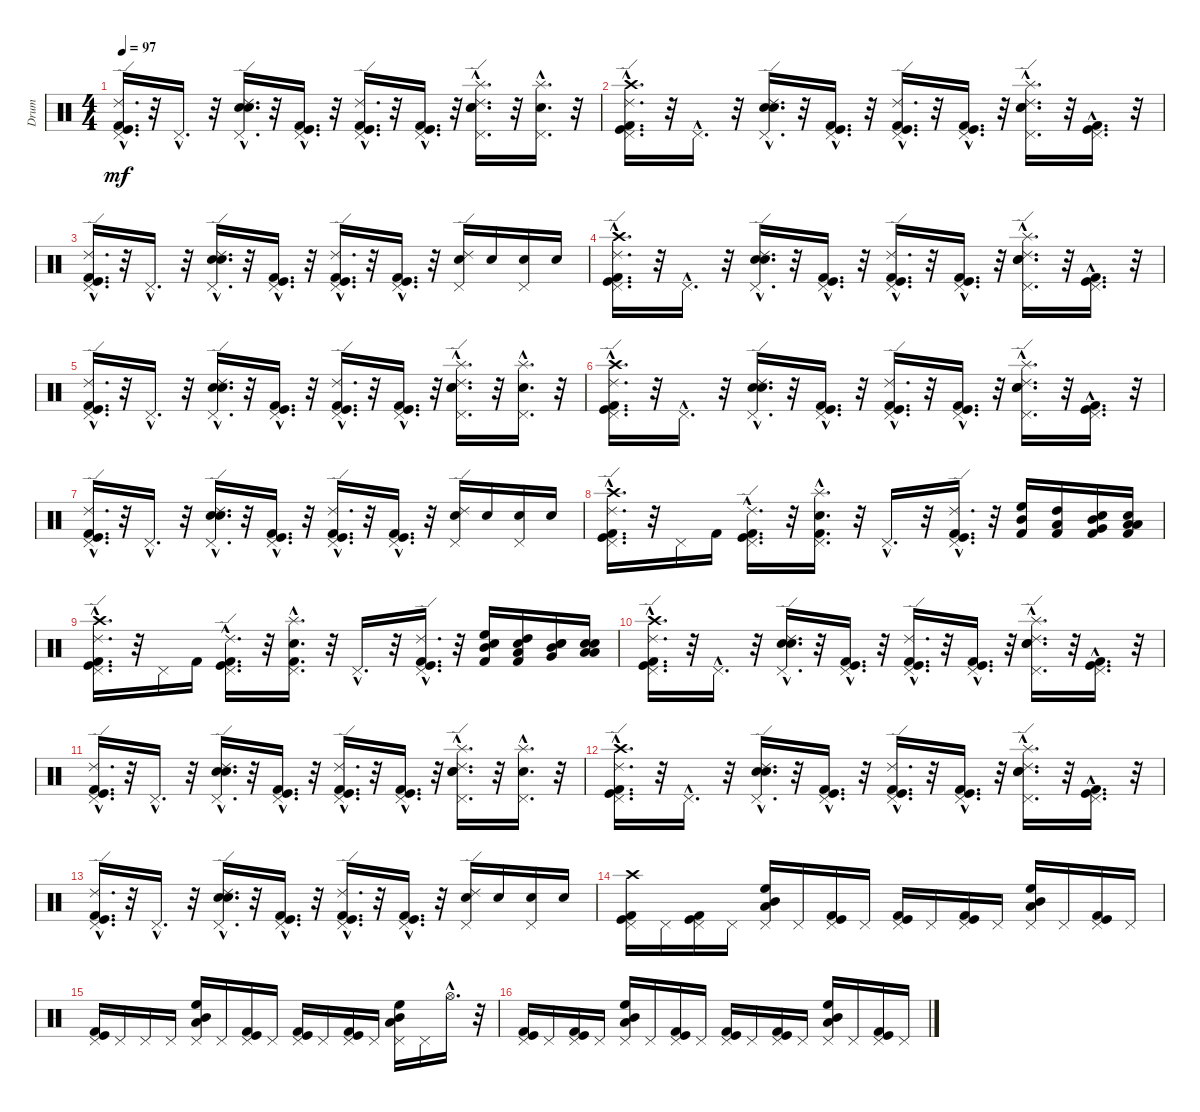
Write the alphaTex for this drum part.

\track ("Drum" "Drum") {instrument percussion}
\staff {score}
\articulation defaults
\ts (4 4)
\tempo 97
\clef neutral
\ks c
("Pedal Hi-Hat (hit)"{hac} "Ride (edge) 2"{hac} "Kick (hit) 2"{hac} "Kick (hit)"{hac}).16{d dy mf} r.32 "Pedal Hi-Hat (hit)"{hac}.16{d} r.32 ("Pedal Hi-Hat (hit)"{hac} "Ride (edge) 2"{hac} "Snare (hit) 2"{hac} "Electric Snare (hit)"{hac}).16{d} r.32 ("Pedal Hi-Hat (hit)"{hac} "Kick (hit)"{hac} "Kick (hit) 2"{hac}).16{d} r.32 ("Pedal Hi-Hat (hit)"{hac} "Ride (edge) 2"{hac} "Kick (hit)"{hac} "Kick (hit) 2"{hac}).16{d} r.32 ("Pedal Hi-Hat (hit)"{hac} "Kick (hit)"{hac} "Kick (hit) 2"{hac}).16{d} r.32 ("Pedal Hi-Hat (hit)"{hac} "Ride (edge) 2"{hac} "Snare (hit) 2"{hac} "Electric Snare (hit)"{hac} "Splash (hit)"{hac}).16{d} r.32 ("Splash (hit)"{hac} "Snare (hit) 2"{hac} "Pedal Hi-Hat (hit)"{hac}).16{d} r.32 |
("Pedal Hi-Hat (hit)"{hac} "Ride (edge) 2"{hac} "Kick (hit) 2"{hac} "Kick (hit)"{hac} "Crash high (hit)"{hac}).16{d} r.32 "Pedal Hi-Hat (hit)"{hac}.16{d} r.32 ("Pedal Hi-Hat (hit)"{hac} "Ride (edge) 2"{hac} "Snare (hit) 2"{hac} "Electric Snare (hit)"{hac}).16{d} r.32 ("Pedal Hi-Hat (hit)"{hac} "Kick (hit)"{hac} "Kick (hit) 2"{hac}).16{d} r.32 ("Pedal Hi-Hat (hit)"{hac} "Ride (edge) 2"{hac} "Kick (hit)"{hac} "Kick (hit) 2"{hac}).16{d} r.32 ("Pedal Hi-Hat (hit)"{hac} "Kick (hit)"{hac} "Kick (hit) 2"{hac}).16{d} r.32 ("Pedal Hi-Hat (hit)"{hac} "Ride (edge) 2"{hac} "Snare (hit) 2"{hac} "Electric Snare (hit)"{hac} "Splash (hit)"{hac}).16{d} r.32 ("Kick (hit) 2"{hac} "Pedal Hi-Hat (hit)"{hac} "Kick (hit)"{hac}).16{d} r.32 |
("Kick (hit)"{hac} "Kick (hit) 2"{hac} "Ride (edge) 2"{hac} "Pedal Hi-Hat (hit)"{hac}).16{d} r.32 "Pedal Hi-Hat (hit)"{hac}.16{d} r.32 ("Electric Snare (hit)"{hac} "Snare (hit) 2"{hac} "Ride (edge) 2"{hac} "Pedal Hi-Hat (hit)"{hac}).16{d} r.32 ("Kick (hit) 2"{hac} "Kick (hit)"{hac} "Pedal Hi-Hat (hit)"{hac}).16{d} r.32 ("Kick (hit) 2"{hac} "Kick (hit)"{hac} "Ride (edge) 2"{hac} "Pedal Hi-Hat (hit)"{hac}).16{d} r.32 ("Kick (hit) 2"{hac} "Kick (hit)"{hac} "Pedal Hi-Hat (hit)"{hac}).16{d} r.32 ("Ride (edge) 2" "Pedal Hi-Hat (hit)" "Snare (hit) 2").16 "Snare (hit) 2".16 ("Pedal Hi-Hat (hit)" "Snare (hit) 2").16 "Snare (hit) 2".16 |
("Pedal Hi-Hat (hit)"{hac} "Ride (edge) 2"{hac} "Kick (hit) 2"{hac} "Kick (hit)"{hac} "Crash high (hit)"{hac}).16{d} r.32 "Pedal Hi-Hat (hit)"{hac}.16{d} r.32 ("Pedal Hi-Hat (hit)"{hac} "Ride (edge) 2"{hac} "Snare (hit) 2"{hac} "Electric Snare (hit)"{hac}).16{d} r.32 ("Pedal Hi-Hat (hit)"{hac} "Kick (hit)"{hac} "Kick (hit) 2"{hac}).16{d} r.32 ("Pedal Hi-Hat (hit)"{hac} "Ride (edge) 2"{hac} "Kick (hit)"{hac} "Kick (hit) 2"{hac}).16{d} r.32 ("Pedal Hi-Hat (hit)"{hac} "Kick (hit)"{hac} "Kick (hit) 2"{hac}).16{d} r.32 ("Pedal Hi-Hat (hit)"{hac} "Ride (edge) 2"{hac} "Snare (hit) 2"{hac} "Electric Snare (hit)"{hac} "Splash (hit)"{hac}).16{d} r.32 ("Kick (hit) 2"{hac} "Pedal Hi-Hat (hit)"{hac} "Kick (hit)"{hac}).16{d} r.32 |
("Kick (hit)"{hac} "Kick (hit) 2"{hac} "Ride (edge) 2"{hac} "Pedal Hi-Hat (hit)"{hac}).16{d} r.32 "Pedal Hi-Hat (hit)"{hac}.16{d} r.32 ("Electric Snare (hit)"{hac} "Snare (hit) 2"{hac} "Ride (edge) 2"{hac} "Pedal Hi-Hat (hit)"{hac}).16{d} r.32 ("Kick (hit) 2"{hac} "Kick (hit)"{hac} "Pedal Hi-Hat (hit)"{hac}).16{d} r.32 ("Kick (hit) 2"{hac} "Kick (hit)"{hac} "Ride (edge) 2"{hac} "Pedal Hi-Hat (hit)"{hac}).16{d} r.32 ("Kick (hit) 2"{hac} "Kick (hit)"{hac} "Pedal Hi-Hat (hit)"{hac}).16{d} r.32 ("Splash (hit)"{hac} "Electric Snare (hit)"{hac} "Snare (hit) 2"{hac} "Ride (edge) 2"{hac} "Pedal Hi-Hat (hit)"{hac}).16{d} r.32 ("Pedal Hi-Hat (hit)"{hac} "Snare (hit) 2"{hac} "Splash (hit)"{hac}).16{d} r.32 |
("Crash high (hit)"{hac} "Kick (hit)"{hac} "Kick (hit) 2"{hac} "Ride (edge) 2"{hac} "Pedal Hi-Hat (hit)"{hac}).16{d} r.32 "Pedal Hi-Hat (hit)"{hac}.16{d} r.32 ("Electric Snare (hit)"{hac} "Snare (hit) 2"{hac} "Ride (edge) 2"{hac} "Pedal Hi-Hat (hit)"{hac}).16{d} r.32 ("Kick (hit) 2"{hac} "Kick (hit)"{hac} "Pedal Hi-Hat (hit)"{hac}).16{d} r.32 ("Kick (hit) 2"{hac} "Kick (hit)"{hac} "Ride (edge) 2"{hac} "Pedal Hi-Hat (hit)"{hac}).16{d} r.32 ("Kick (hit) 2"{hac} "Kick (hit)"{hac} "Pedal Hi-Hat (hit)"{hac}).16{d} r.32 ("Splash (hit)"{hac} "Electric Snare (hit)"{hac} "Snare (hit) 2"{hac} "Ride (edge) 2"{hac} "Pedal Hi-Hat (hit)"{hac}).16{d} r.32 ("Kick (hit)"{hac} "Pedal Hi-Hat (hit)"{hac} "Kick (hit) 2"{hac}).16{d} r.32 |
("Pedal Hi-Hat (hit)"{hac} "Ride (edge) 2"{hac} "Kick (hit) 2"{hac} "Kick (hit)"{hac}).16{d} r.32 "Pedal Hi-Hat (hit)"{hac}.16{d} r.32 ("Pedal Hi-Hat (hit)"{hac} "Ride (edge) 2"{hac} "Snare (hit) 2"{hac} "Electric Snare (hit)"{hac}).16{d} r.32 ("Pedal Hi-Hat (hit)"{hac} "Kick (hit)"{hac} "Kick (hit) 2"{hac}).16{d} r.32 ("Pedal Hi-Hat (hit)"{hac} "Ride (edge) 2"{hac} "Kick (hit)"{hac} "Kick (hit) 2"{hac}).16{d} r.32 ("Pedal Hi-Hat (hit)"{hac} "Kick (hit)"{hac} "Kick (hit) 2"{hac}).16{d} r.32 ("Snare (hit) 2" "Pedal Hi-Hat (hit)" "Ride (edge) 2").16 "Snare (hit) 2".16 ("Snare (hit) 2" "Pedal Hi-Hat (hit)").16 "Snare (hit) 2".16 |
("Kick (hit)"{hac} "Crash high (hit)"{hac} "Kick (hit) 2"{hac} "Ride (edge) 2"{hac} "Pedal Hi-Hat (hit)"{hac}).16{d} r.32 "Pedal Hi-Hat (hit)".16 "Kick (hit) 2".16 ("Ride (edge) 2"{hac} "Pedal Hi-Hat (hit)"{hac} "Kick (hit) 2"{hac} "Kick (hit)"{hac}).16{d} r.32 ("Pedal Hi-Hat (hit)"{hac} "Splash (hit)"{hac} "Snare (hit) 2"{hac} "Kick (hit) 2"{hac}).16{d} r.32 "Pedal Hi-Hat (hit)"{hac}.16{d} r.32 ("Kick (hit)"{hac} "Pedal Hi-Hat (hit)"{hac} "Kick (hit) 2"{hac} "Ride (edge) 2"{hac}).16{d} r.32 ("High Floor Tom (hit)" "Mid Tom (hit)" "Kick (hit) 2").16 ("High Tom (hit)" "Low Tom (hit)" "Kick (hit) 2").16 ("Mid Tom (hit)" "Very Low Tom (hit)" "Kick (hit) 2" "Electric Snare (hit)").16 ("Low Tom (hit)" "Low Floor Tom (hit)" "Kick (hit) 2" "Electric Snare (hit)").16 |
("Pedal Hi-Hat (hit)"{hac} "Ride (edge) 2"{hac} "Kick (hit) 2"{hac} "Crash high (hit)"{hac} "Kick (hit)"{hac}).16{d} r.32 "Pedal Hi-Hat (hit)".16 "Kick (hit) 2".16 ("Kick (hit)"{hac} "Kick (hit) 2"{hac} "Pedal Hi-Hat (hit)"{hac} "Ride (edge) 2"{hac}).16{d} r.32 ("Kick (hit) 2"{hac} "Snare (hit) 2"{hac} "Splash (hit)"{hac} "Pedal Hi-Hat (hit)"{hac}).16{d} r.32 "Pedal Hi-Hat (hit)"{hac}.16{d} r.32 ("Kick (hit) 2"{hac} "Pedal Hi-Hat (hit)"{hac} "Kick (hit)"{hac} "Ride (edge) 2"{hac}).16{d} r.32 ("Kick (hit) 2" "Mid Tom (hit)" "High Floor Tom (hit)" "Electric Snare (hit)").16 ("Kick (hit) 2" "Low Tom (hit)" "High Tom (hit)" "Electric Snare (hit)").16 ("Electric Snare (hit)" "Snare (hit) 2" "Very Low Tom (hit)" "Mid Tom (hit)").16 ("Electric Snare (hit)" "Snare (hit) 2" "Low Floor Tom (hit)" "Low Tom (hit)").16 |
("Pedal Hi-Hat (hit)"{hac} "Ride (edge) 2"{hac} "Kick (hit) 2"{hac} "Kick (hit)"{hac} "Crash high (hit)"{hac}).16{d} r.32 "Pedal Hi-Hat (hit)"{hac}.16{d} r.32 ("Pedal Hi-Hat (hit)"{hac} "Ride (edge) 2"{hac} "Snare (hit) 2"{hac} "Electric Snare (hit)"{hac}).16{d} r.32 ("Pedal Hi-Hat (hit)"{hac} "Kick (hit)"{hac} "Kick (hit) 2"{hac}).16{d} r.32 ("Pedal Hi-Hat (hit)"{hac} "Ride (edge) 2"{hac} "Kick (hit)"{hac} "Kick (hit) 2"{hac}).16{d} r.32 ("Pedal Hi-Hat (hit)"{hac} "Kick (hit)"{hac} "Kick (hit) 2"{hac}).16{d} r.32 ("Pedal Hi-Hat (hit)"{hac} "Ride (edge) 2"{hac} "Snare (hit) 2"{hac} "Electric Snare (hit)"{hac} "Splash (hit)"{hac}).16{d} r.32 ("Kick (hit) 2"{hac} "Pedal Hi-Hat (hit)"{hac} "Kick (hit)"{hac}).16{d} r.32 |
("Kick (hit)"{hac} "Kick (hit) 2"{hac} "Ride (edge) 2"{hac} "Pedal Hi-Hat (hit)"{hac}).16{d} r.32 "Pedal Hi-Hat (hit)"{hac}.16{d} r.32 ("Electric Snare (hit)"{hac} "Snare (hit) 2"{hac} "Ride (edge) 2"{hac} "Pedal Hi-Hat (hit)"{hac}).16{d} r.32 ("Kick (hit) 2"{hac} "Kick (hit)"{hac} "Pedal Hi-Hat (hit)"{hac}).16{d} r.32 ("Kick (hit) 2"{hac} "Kick (hit)"{hac} "Ride (edge) 2"{hac} "Pedal Hi-Hat (hit)"{hac}).16{d} r.32 ("Kick (hit) 2"{hac} "Kick (hit)"{hac} "Pedal Hi-Hat (hit)"{hac}).16{d} r.32 ("Splash (hit)"{hac} "Electric Snare (hit)"{hac} "Snare (hit) 2"{hac} "Ride (edge) 2"{hac} "Pedal Hi-Hat (hit)"{hac}).16{d} r.32 ("Pedal Hi-Hat (hit)"{hac} "Snare (hit) 2"{hac} "Splash (hit)"{hac}).16{d} r.32 |
("Crash high (hit)"{hac} "Kick (hit)"{hac} "Kick (hit) 2"{hac} "Ride (edge) 2"{hac} "Pedal Hi-Hat (hit)"{hac}).16{d} r.32 "Pedal Hi-Hat (hit)"{hac}.16{d} r.32 ("Electric Snare (hit)"{hac} "Snare (hit) 2"{hac} "Ride (edge) 2"{hac} "Pedal Hi-Hat (hit)"{hac}).16{d} r.32 ("Kick (hit) 2"{hac} "Kick (hit)"{hac} "Pedal Hi-Hat (hit)"{hac}).16{d} r.32 ("Kick (hit) 2"{hac} "Kick (hit)"{hac} "Ride (edge) 2"{hac} "Pedal Hi-Hat (hit)"{hac}).16{d} r.32 ("Kick (hit) 2"{hac} "Kick (hit)"{hac} "Pedal Hi-Hat (hit)"{hac}).16{d} r.32 ("Splash (hit)"{hac} "Electric Snare (hit)"{hac} "Snare (hit) 2"{hac} "Ride (edge) 2"{hac} "Pedal Hi-Hat (hit)"{hac}).16{d} r.32 ("Kick (hit)"{hac} "Pedal Hi-Hat (hit)"{hac} "Kick (hit) 2"{hac}).16{d} r.32 |
("Ride (edge) 2"{hac} "Kick (hit) 2"{hac} "Kick (hit)"{hac} "Pedal Hi-Hat (hit)"{hac}).16{d} r.32 "Pedal Hi-Hat (hit)"{hac}.16{d} r.32 ("Electric Snare (hit)"{hac} "Ride (edge) 2"{hac} "Pedal Hi-Hat (hit)"{hac} "Snare (hit) 2"{hac}).16{d} r.32 ("Pedal Hi-Hat (hit)"{hac} "Kick (hit) 2"{hac} "Kick (hit)"{hac}).16{d} r.32 ("Kick (hit) 2"{hac} "Ride (edge) 2"{hac} "Pedal Hi-Hat (hit)"{hac} "Kick (hit)"{hac}).16{d} r.32 ("Kick (hit)"{hac} "Kick (hit) 2"{hac} "Pedal Hi-Hat (hit)"{hac}).16{d} r.32 ("Pedal Hi-Hat (hit)" "Ride (edge) 2" "Snare (hit) 2").16 "Snare (hit) 2".16 ("Pedal Hi-Hat (hit)" "Snare (hit) 2").16 "Snare (hit) 2".16 |
("Kick (hit)" "Pedal Hi-Hat (hit)" "Crash high (hit)" "Kick (hit) 2").16 "Pedal Hi-Hat (hit)".16 ("Kick (hit)" "Kick (hit) 2" "Pedal Hi-Hat (hit)").16 "Pedal Hi-Hat (hit)".16 ("Pedal Hi-Hat (hit)" "Mid Tom (hit)" "Low Tom (hit)" "High Floor Tom (hit)").16 "Pedal Hi-Hat (hit)".16 ("Pedal Hi-Hat (hit)" "Kick (hit)" "Kick (hit) 2").16 "Pedal Hi-Hat (hit)".16 ("Pedal Hi-Hat (hit)" "Kick (hit)" "Kick (hit) 2").16 "Pedal Hi-Hat (hit)".16 ("Kick (hit)" "Pedal Hi-Hat (hit)" "Kick (hit) 2").16 "Pedal Hi-Hat (hit)".16 ("High Floor Tom (hit)" "Mid Tom (hit)" "Low Tom (hit)" "Pedal Hi-Hat (hit)").16 "Pedal Hi-Hat (hit)".16 ("Kick (hit) 2" "Pedal Hi-Hat (hit)" "Kick (hit)").16 "Pedal Hi-Hat (hit)".16 |
("Kick (hit) 2" "Kick (hit)" "Pedal Hi-Hat (hit)").16 "Pedal Hi-Hat (hit)".16 "Pedal Hi-Hat (hit)".16 "Pedal Hi-Hat (hit)".16 ("Low Tom (hit)" "Mid Tom (hit)" "High Floor Tom (hit)" "Pedal Hi-Hat (hit)").16 "Pedal Hi-Hat (hit)".16 ("Kick (hit) 2" "Kick (hit)" "Pedal Hi-Hat (hit)").16 "Pedal Hi-Hat (hit)".16 ("Kick (hit) 2" "Kick (hit)" "Pedal Hi-Hat (hit)").16 "Pedal Hi-Hat (hit)".16 ("Kick (hit) 2" "Kick (hit)" "Pedal Hi-Hat (hit)").16 "Pedal Hi-Hat (hit)".16 ("Low Tom (hit)" "High Floor Tom (hit)" "Mid Tom (hit)" "Pedal Hi-Hat (hit)").16 "Pedal Hi-Hat (hit)".16 "Hi-Hat (open)"{hac}.16{d} r.32 |
("Kick (hit) 2" "Kick (hit)" "Pedal Hi-Hat (hit)").16 "Pedal Hi-Hat (hit)".16 ("Kick (hit) 2" "Kick (hit)" "Pedal Hi-Hat (hit)").16 "Pedal Hi-Hat (hit)".16 ("Low Tom (hit)" "Mid Tom (hit)" "High Floor Tom (hit)" "Pedal Hi-Hat (hit)").16 "Pedal Hi-Hat (hit)".16 ("Kick (hit) 2" "Kick (hit)" "Pedal Hi-Hat (hit)").16 "Pedal Hi-Hat (hit)".16 ("Kick (hit) 2" "Kick (hit)" "Pedal Hi-Hat (hit)").16 "Pedal Hi-Hat (hit)".16 ("Kick (hit) 2" "Kick (hit)" "Pedal Hi-Hat (hit)").16 "Pedal Hi-Hat (hit)".16 ("Low Tom (hit)" "High Floor Tom (hit)" "Mid Tom (hit)" "Pedal Hi-Hat (hit)").16 "Pedal Hi-Hat (hit)".16 ("Kick (hit)" "Kick (hit) 2" "Pedal Hi-Hat (hit)").16 "Pedal Hi-Hat (hit)".16
